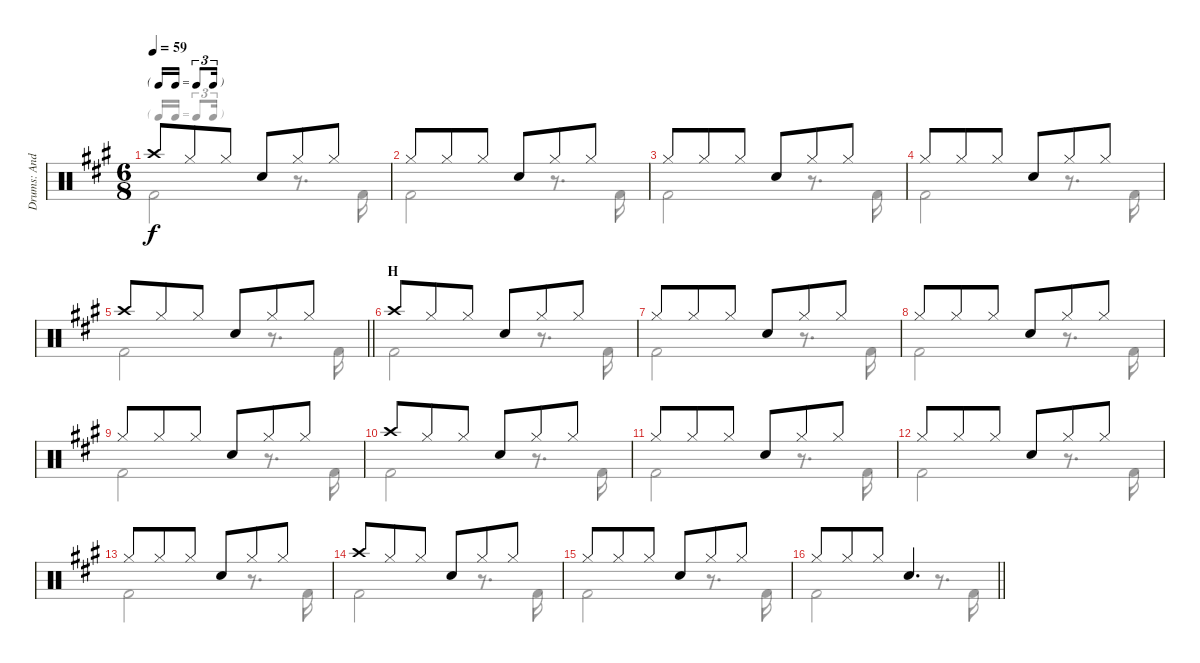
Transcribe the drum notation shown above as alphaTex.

\track ("Drums: Andy Newmark" "Drums: And") {instrument percussion}
\staff {score}
\articulation defaults
\voice
\ts (6 8)
\tf triplet16th
\tempo 59
\clef neutral
\ks a "Crash high (hit)".8{dy f} "Hi-Hat (closed)".8 "Hi-Hat (closed)".8 "Snare (hit) 2".8 "Hi-Hat (closed)".8 "Hi-Hat (closed)".8
|
"Hi-Hat (closed)".8 "Hi-Hat (closed)".8 "Hi-Hat (closed)".8 "Snare (hit) 2".8 "Hi-Hat (closed)".8 "Hi-Hat (closed)".8 |
"Hi-Hat (closed)".8 "Hi-Hat (closed)".8 "Hi-Hat (closed)".8 "Snare (hit) 2".8 "Hi-Hat (closed)".8 "Hi-Hat (closed)".8 |
"Hi-Hat (closed)".8 "Hi-Hat (closed)".8 "Hi-Hat (closed)".8 "Snare (hit) 2".8 "Hi-Hat (closed)".8 "Hi-Hat (closed)".8 |
\barLineRight lightlight "Crash high (hit)".8 "Hi-Hat (closed)".8 "Hi-Hat (closed)".8 "Snare (hit) 2".8 "Hi-Hat (closed)".8 "Hi-Hat (closed)".8
|
\section ("" "H")
"Crash high (hit)".8 "Hi-Hat (closed)".8 "Hi-Hat (closed)".8 "Snare (hit) 2".8 "Hi-Hat (closed)".8 "Hi-Hat (closed)".8 |
"Hi-Hat (closed)".8 "Hi-Hat (closed)".8 "Hi-Hat (closed)".8 "Snare (hit) 2".8 "Hi-Hat (closed)".8 "Hi-Hat (closed)".8 |
"Hi-Hat (closed)".8 "Hi-Hat (closed)".8 "Hi-Hat (closed)".8 "Snare (hit) 2".8 "Hi-Hat (closed)".8 "Hi-Hat (closed)".8 |
"Hi-Hat (closed)".8 "Hi-Hat (closed)".8 "Hi-Hat (closed)".8 "Snare (hit) 2".8 "Hi-Hat (closed)".8 "Hi-Hat (closed)".8 |
"Crash high (hit)".8 "Hi-Hat (closed)".8 "Hi-Hat (closed)".8 "Snare (hit) 2".8 "Hi-Hat (closed)".8 "Hi-Hat (closed)".8 |
"Hi-Hat (closed)".8 "Hi-Hat (closed)".8 "Hi-Hat (closed)".8 "Snare (hit) 2".8 "Hi-Hat (closed)".8 "Hi-Hat (closed)".8 |
"Hi-Hat (closed)".8 "Hi-Hat (closed)".8 "Hi-Hat (closed)".8 "Snare (hit) 2".8 "Hi-Hat (closed)".8 "Hi-Hat (closed)".8 |
"Hi-Hat (closed)".8 "Hi-Hat (closed)".8 "Hi-Hat (closed)".8 "Snare (hit) 2".8 "Hi-Hat (closed)".8 "Hi-Hat (closed)".8 |
"Crash high (hit)".8 "Hi-Hat (closed)".8 "Hi-Hat (closed)".8 "Snare (hit) 2".8 "Hi-Hat (closed)".8 "Hi-Hat (closed)".8 |
"Hi-Hat (closed)".8 "Hi-Hat (closed)".8 "Hi-Hat (closed)".8 "Snare (hit) 2".8 "Hi-Hat (closed)".8 "Hi-Hat (closed)".8 |
\barLineRight lightlight "Hi-Hat (closed)".8 "Hi-Hat (closed)".8 "Hi-Hat (closed)".8 "Snare (hit) 2".4{d}
\voice
\clef neutral
\ottava regular
\simile none
\ks a "Kick (hit) 2".2{dy f}
r.8{d} "Kick (hit) 2".16 |
"Kick (hit) 2".2 r.8{d} "Kick (hit) 2".16 |
"Kick (hit) 2".2 r.8{d} "Kick (hit) 2".16 |
"Kick (hit) 2".2 r.8{d} "Kick (hit) 2".16 |
\barLineRight lightlight "Kick (hit) 2".2
r.8{d} "Kick (hit) 2".16 |
"Kick (hit) 2".2 r.8{d} "Kick (hit) 2".16 |
"Kick (hit) 2".2 r.8{d} "Kick (hit) 2".16 |
"Kick (hit) 2".2 r.8{d} "Kick (hit) 2".16 |
"Kick (hit) 2".2 r.8{d} "Kick (hit) 2".16 |
"Kick (hit) 2".2 r.8{d} "Kick (hit) 2".16 |
"Kick (hit) 2".2 r.8{d} "Kick (hit) 2".16 |
"Kick (hit) 2".2 r.8{d} "Kick (hit) 2".16 |
"Kick (hit) 2".2 r.8{d} "Kick (hit) 2".16 |
"Kick (hit) 2".2 r.8{d} "Kick (hit) 2".16 |
"Kick (hit) 2".2 r.8{d} "Kick (hit) 2".16 |
\barLineRight lightlight "Kick (hit) 2".2
r.8{d} "Kick (hit) 2".16
